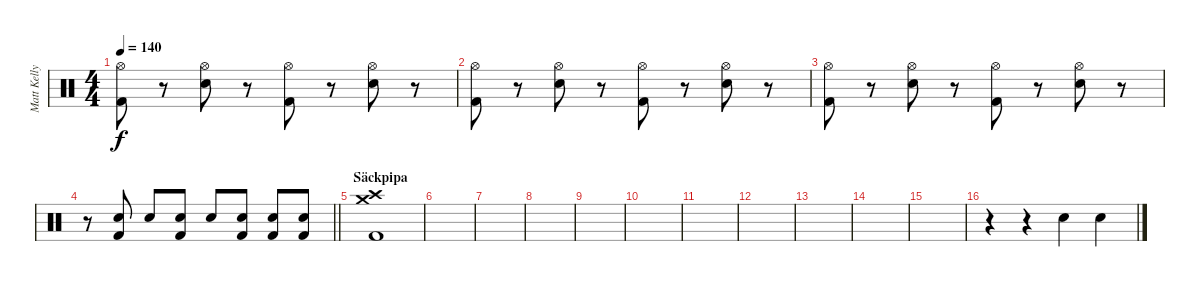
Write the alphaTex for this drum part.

\track ("Matt Kelly" "Matt Kelly") {instrument percussion}
\staff {score}
\articulation defaults
\ts (4 4)
\tempo 140
\clef neutral
\ks c
("Hi-Hat (open)" "Kick (hit) 2").8{dy f} r.8 ("Hi-Hat (open)" "Electric Snare (hit)").8 r.8 ("Hi-Hat (open)" "Kick (hit) 2").8 r.8 ("Hi-Hat (open)" "Electric Snare (hit)").8 r.8 |
("Hi-Hat (open)" "Kick (hit) 2").8 r.8 ("Hi-Hat (open)" "Electric Snare (hit)").8 r.8 ("Hi-Hat (open)" "Kick (hit) 2").8 r.8 ("Hi-Hat (open)" "Electric Snare (hit)").8 r.8 |
("Hi-Hat (open)" "Kick (hit) 2").8 r.8 ("Hi-Hat (open)" "Electric Snare (hit)").8 r.8 ("Hi-Hat (open)" "Kick (hit) 2").8 r.8 ("Hi-Hat (open)" "Electric Snare (hit)").8 r.8 |
\barLineRight lightlight
r.8 ("Electric Snare (hit)" "Kick (hit) 2").8 "Electric Snare (hit)".8 ("Electric Snare (hit)" "Kick (hit) 2").8 "Electric Snare (hit)".8 ("Electric Snare (hit)" "Kick (hit) 2").8 ("Electric Snare (hit)" "Kick (hit) 2").8 ("Electric Snare (hit)" "Kick (hit) 2").8 |
\section ("" "Säckpipa")
("Crash medium (hit)" "Crash high (hit)" "Kick (hit) 2").1 |
|
|
|
|
|
|
|
|
|
|
r.4 r.4 "Electric Snare (hit)".4 "Electric Snare (hit)".4
